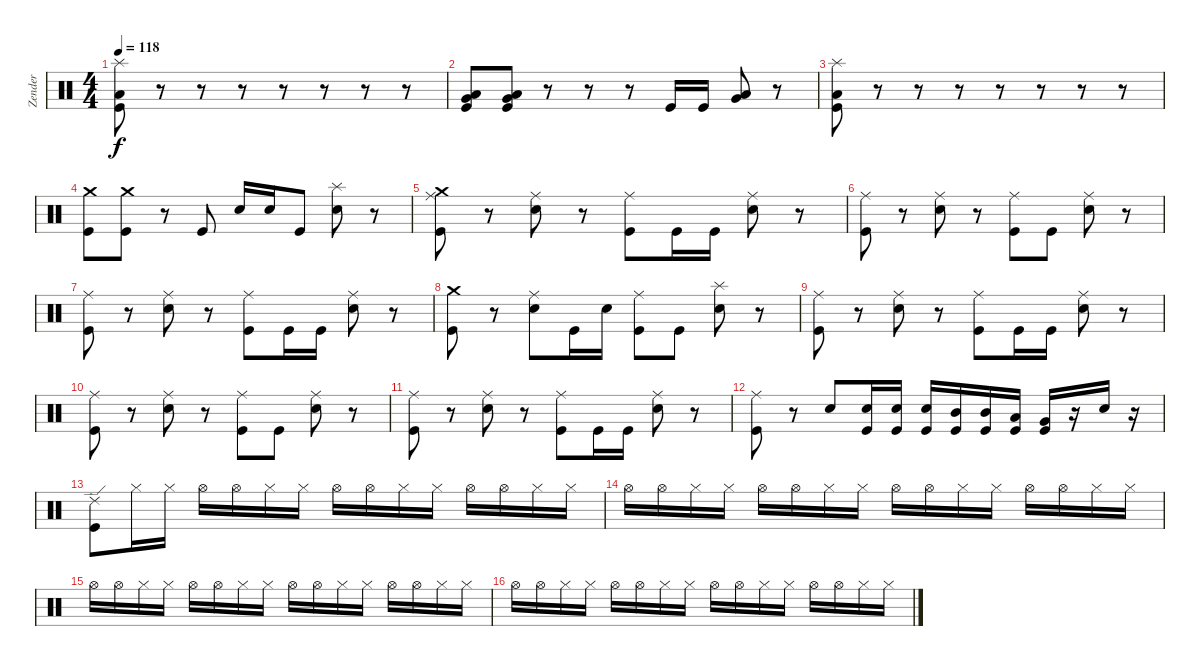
\track ("Zender" "Zender") {instrument percussion}
\staff {score}
\articulation defaults
\ts (4 4)
\tempo 118
\clef neutral
\ks c
("Splash (hit)" "Low Tom (hit)" "Kick (hit)").8{dy f} r.8 r.8 r.8 r.8 r.8 r.8 r.8 |
("Low Floor Tom (hit)" "Very Low Tom (hit)" "Kick (hit)").8 ("Low Floor Tom (hit)" "Very Low Tom (hit)" "Kick (hit)").8 r.8 r.8 r.8 "Kick (hit)".16 "Kick (hit)".16 ("Low Floor Tom (hit)" "Very Low Tom (hit)").8 r.8 |
("Splash (hit)" "Low Tom (hit)" "Kick (hit)").8 r.8 r.8 r.8 r.8 r.8 r.8 r.8 |
("Crash medium (hit)" "Kick (hit)").8 ("Crash medium (hit)" "Kick (hit)").8 r.8 "Kick (hit)".8 "Snare (hit) 2".16 "Snare (hit) 2".16 "Kick (hit)".8 ("Splash (hit)" "Snare (hit) 2").8 r.8 |
("Crash medium (hit)" "Ride (middle)" "Kick (hit)").8 r.8 ("Ride (middle)" "Snare (hit) 2").8 r.8 ("Ride (middle)" "Kick (hit)").8 "Kick (hit)".16 "Kick (hit)".16 ("Ride (middle)" "Snare (hit) 2").8 r.8 |
("Ride (middle)" "Kick (hit)").8 r.8 ("Ride (middle)" "Snare (hit) 2").8 r.8 ("Ride (middle)" "Kick (hit)").8 "Kick (hit)".8 ("Ride (middle)" "Snare (hit) 2").8 r.8 |
("Ride (middle)" "Kick (hit)").8 r.8 ("Ride (middle)" "Snare (hit) 2").8 r.8 ("Ride (middle)" "Kick (hit)").8 "Kick (hit)".16 "Kick (hit)".16 ("Ride (middle)" "Snare (hit) 2").8 r.8 |
("Crash medium (hit)" "Kick (hit)").8 r.8 ("Ride (middle)" "Snare (hit) 2").8 "Kick (hit)".16 "Snare (hit) 2".16 ("Ride (middle)" "Kick (hit)").8 "Kick (hit)".8 ("Splash (hit)" "Snare (hit) 2").8 r.8 |
("Ride (middle)" "Kick (hit)").8 r.8 ("Ride (middle)" "Snare (hit) 2").8 r.8 ("Ride (middle)" "Kick (hit)").8 "Kick (hit)".16 "Kick (hit)".16 ("Ride (middle)" "Snare (hit) 2").8 r.8 |
("Ride (middle)" "Kick (hit)").8 r.8 ("Ride (middle)" "Snare (hit) 2").8 r.8 ("Ride (middle)" "Kick (hit)").8 "Kick (hit)".8 ("Ride (middle)" "Snare (hit) 2").8 r.8 |
("Ride (middle)" "Kick (hit)").8 r.8 ("Ride (middle)" "Snare (hit) 2").8 r.8 ("Ride (middle)" "Kick (hit)").8 "Kick (hit)".16 "Kick (hit)".16 ("Ride (middle)" "Snare (hit) 2").8 r.8 |
("Ride (middle)" "Kick (hit)").8 r.8 "Snare (hit) 2".8 ("Snare (hit) 2" "Kick (hit)").16 ("Snare (hit) 2" "Kick (hit)").16 ("Snare (hit) 2" "Kick (hit)").16 ("Mid Tom (hit)" "Kick (hit)").16 ("Mid Tom (hit)" "Kick (hit)").16 ("Low Tom (hit)" "Kick (hit)").16 ("Very Low Tom (hit)" "Kick (hit)").16 r.16 "Snare (hit) 2".16 r.16 |
("Ride (edge) 2" "Kick (hit)").8 "Hi-Hat (closed)".16 "Hi-Hat (closed)".16 "Hi-Hat (open)".16 "Hi-Hat (open)".16 "Hi-Hat (closed)".16 "Hi-Hat (closed)".16 "Hi-Hat (open)".16 "Hi-Hat (open)".16 "Hi-Hat (closed)".16 "Hi-Hat (closed)".16 "Hi-Hat (open)".16 "Hi-Hat (open)".16 "Hi-Hat (closed)".16 "Hi-Hat (closed)".16 |
"Hi-Hat (open)".16 "Hi-Hat (open)".16 "Hi-Hat (closed)".16 "Hi-Hat (closed)".16 "Hi-Hat (open)".16 "Hi-Hat (open)".16 "Hi-Hat (closed)".16 "Hi-Hat (closed)".16 "Hi-Hat (open)".16 "Hi-Hat (open)".16 "Hi-Hat (closed)".16 "Hi-Hat (closed)".16 "Hi-Hat (open)".16 "Hi-Hat (open)".16 "Hi-Hat (closed)".16 "Hi-Hat (closed)".16 |
"Hi-Hat (open)".16 "Hi-Hat (open)".16 "Hi-Hat (closed)".16 "Hi-Hat (closed)".16 "Hi-Hat (open)".16 "Hi-Hat (open)".16 "Hi-Hat (closed)".16 "Hi-Hat (closed)".16 "Hi-Hat (open)".16 "Hi-Hat (open)".16 "Hi-Hat (closed)".16 "Hi-Hat (closed)".16 "Hi-Hat (open)".16 "Hi-Hat (open)".16 "Hi-Hat (closed)".16 "Hi-Hat (closed)".16 |
"Hi-Hat (open)".16 "Hi-Hat (open)".16 "Hi-Hat (closed)".16 "Hi-Hat (closed)".16 "Hi-Hat (open)".16 "Hi-Hat (open)".16 "Hi-Hat (closed)".16 "Hi-Hat (closed)".16 "Hi-Hat (open)".16 "Hi-Hat (open)".16 "Hi-Hat (closed)".16 "Hi-Hat (closed)".16 "Hi-Hat (open)".16 "Hi-Hat (open)".16 "Hi-Hat (closed)".16 "Hi-Hat (closed)".16
